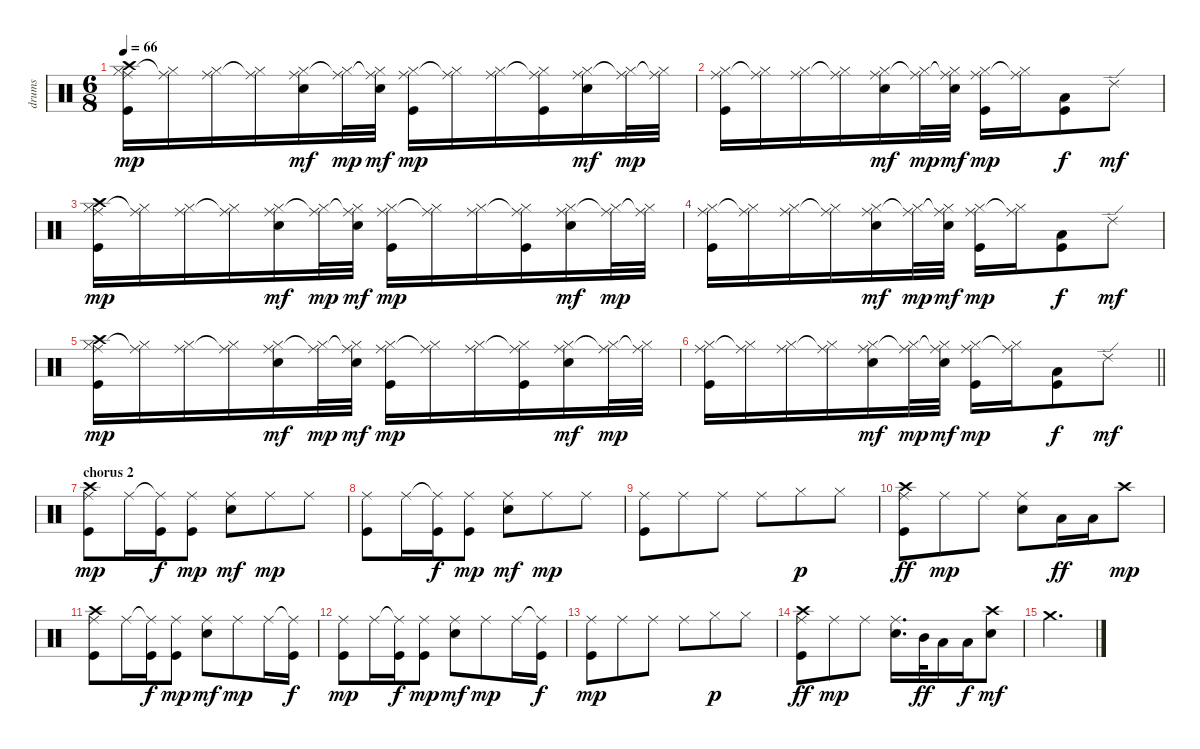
\track ("drums" "drums") {instrument percussion}
\staff {score}
\articulation defaults
\ts (6 8)
\tempo 66
\clef neutral
\ks c
("Crash high (hit)" "Hi-Hat (closed)" "Ride (middle)" "Kick (hit)").16{dy mp} ("Hi-Hat (closed)" "Ride (middle)"{t}).16 ("Hi-Hat (closed)" "Ride (middle)").16 ("Hi-Hat (closed)" "Ride (middle)"{t}).16 ("Hi-Hat (closed)" "Ride (middle)" "Electric Snare (hit)").16{dy mf} ("Hi-Hat (closed)" "Ride (middle)"{t}).32{dy mp} ("Hi-Hat (closed)" "Ride (middle)"{t} "Electric Snare (hit)").32{dy mf} ("Hi-Hat (closed)" "Ride (middle)" "Kick (hit)").16{dy mp} ("Hi-Hat (closed)" "Ride (middle)"{t}).16 ("Hi-Hat (closed)" "Ride (middle)").16 ("Hi-Hat (closed)" "Ride (middle)"{t} "Kick (hit)").16 ("Hi-Hat (closed)" "Ride (middle)" "Electric Snare (hit)").16{dy mf} ("Hi-Hat (closed)" "Ride (middle)"{t}).32{dy mp} ("Hi-Hat (closed)" "Ride (middle)"{t}).32 |
("Hi-Hat (closed)" "Ride (middle)" "Kick (hit)").16 ("Hi-Hat (closed)" "Ride (middle)"{t}).16 ("Hi-Hat (closed)" "Ride (middle)").16 ("Hi-Hat (closed)" "Ride (middle)"{t}).16 ("Hi-Hat (closed)" "Ride (middle)" "Electric Snare (hit)").16{dy mf} ("Hi-Hat (closed)" "Ride (middle)"{t}).32{dy mp} ("Hi-Hat (closed)" "Ride (middle)"{t} "Electric Snare (hit)").32{dy mf} ("Hi-Hat (closed)" "Ride (middle)" "Kick (hit)").16{dy mp} ("Hi-Hat (closed)" "Ride (middle)"{t}).16 ("Low Tom (hit)" "Kick (hit)").8{dy f} "Ride (edge) 2".8{dy mf} |
("Crash high (hit)" "Hi-Hat (closed)" "Ride (middle)" "Kick (hit)").16{dy mp} ("Hi-Hat (closed)" "Ride (middle)"{t}).16 ("Hi-Hat (closed)" "Ride (middle)").16 ("Hi-Hat (closed)" "Ride (middle)"{t}).16 ("Hi-Hat (closed)" "Ride (middle)" "Electric Snare (hit)").16{dy mf} ("Hi-Hat (closed)" "Ride (middle)"{t}).32{dy mp} ("Hi-Hat (closed)" "Ride (middle)"{t} "Electric Snare (hit)").32{dy mf} ("Hi-Hat (closed)" "Ride (middle)" "Kick (hit)").16{dy mp} ("Hi-Hat (closed)" "Ride (middle)"{t}).16 ("Hi-Hat (closed)" "Ride (middle)").16 ("Hi-Hat (closed)" "Ride (middle)"{t} "Kick (hit)").16 ("Hi-Hat (closed)" "Ride (middle)" "Electric Snare (hit)").16{dy mf} ("Hi-Hat (closed)" "Ride (middle)"{t}).32{dy mp} ("Hi-Hat (closed)" "Ride (middle)"{t}).32 |
("Hi-Hat (closed)" "Ride (middle)" "Kick (hit)").16 ("Hi-Hat (closed)" "Ride (middle)"{t}).16 ("Hi-Hat (closed)" "Ride (middle)").16 ("Hi-Hat (closed)" "Ride (middle)"{t}).16 ("Hi-Hat (closed)" "Ride (middle)" "Electric Snare (hit)").16{dy mf} ("Hi-Hat (closed)" "Ride (middle)"{t}).32{dy mp} ("Hi-Hat (closed)" "Ride (middle)"{t} "Electric Snare (hit)").32{dy mf} ("Hi-Hat (closed)" "Ride (middle)" "Kick (hit)").16{dy mp} ("Hi-Hat (closed)" "Ride (middle)"{t}).16 ("Low Tom (hit)" "Kick (hit)").8{dy f} "Ride (edge) 2".8{dy mf} |
("Crash high (hit)" "Hi-Hat (closed)" "Ride (middle)" "Kick (hit)").16{dy mp} ("Hi-Hat (closed)" "Ride (middle)"{t}).16 ("Hi-Hat (closed)" "Ride (middle)").16 ("Hi-Hat (closed)" "Ride (middle)"{t}).16 ("Hi-Hat (closed)" "Ride (middle)" "Electric Snare (hit)").16{dy mf} ("Hi-Hat (closed)" "Ride (middle)"{t}).32{dy mp} ("Hi-Hat (closed)" "Ride (middle)"{t} "Electric Snare (hit)").32{dy mf} ("Hi-Hat (closed)" "Ride (middle)" "Kick (hit)").16{dy mp} ("Hi-Hat (closed)" "Ride (middle)"{t}).16 ("Hi-Hat (closed)" "Ride (middle)").16 ("Hi-Hat (closed)" "Ride (middle)"{t} "Kick (hit)").16 ("Hi-Hat (closed)" "Ride (middle)" "Electric Snare (hit)").16{dy mf} ("Hi-Hat (closed)" "Ride (middle)"{t}).32{dy mp} ("Hi-Hat (closed)" "Ride (middle)"{t}).32 |
\barLineRight lightlight
("Hi-Hat (closed)" "Ride (middle)" "Kick (hit)").16 ("Hi-Hat (closed)" "Ride (middle)"{t}).16 ("Hi-Hat (closed)" "Ride (middle)").16 ("Hi-Hat (closed)" "Ride (middle)"{t}).16 ("Hi-Hat (closed)" "Ride (middle)" "Electric Snare (hit)").16{dy mf} ("Hi-Hat (closed)" "Ride (middle)"{t}).32{dy mp} ("Hi-Hat (closed)" "Ride (middle)"{t} "Electric Snare (hit)").32{dy mf} ("Hi-Hat (closed)" "Ride (middle)" "Kick (hit)").16{dy mp} ("Hi-Hat (closed)" "Ride (middle)"{t}).16 ("Low Tom (hit)" "Kick (hit)").8{dy f} "Ride (edge) 2".8{dy mf} |
\section ("" "chorus 2")
("Crash high (hit)" "Ride (middle)" "Kick (hit)").8{dy mp} "Ride (middle)".16 ("Ride (middle)"{t} "Kick (hit)").16{dy f} ("Ride (middle)" "Kick (hit)").8{dy mp} ("Ride (middle)" "Electric Snare (hit)").8{dy mf} "Ride (middle)".8{dy mp} "Ride (middle)".8 |
("Ride (middle)" "Kick (hit)").8 "Ride (middle)".16 ("Ride (middle)"{t} "Kick (hit)").16{dy f} ("Ride (middle)" "Kick (hit)").8{dy mp} ("Ride (middle)" "Electric Snare (hit)").8{dy mf} "Ride (middle)".8{dy mp} "Ride (middle)".8 |
("Ride (middle)" "Kick (hit)").8 "Ride (middle)".8 "Ride (middle)".8 "Ride (middle)".8 "Hi-Hat (closed)".8{dy p} "Hi-Hat (closed)".8 |
("Crash high (hit)" "Ride (middle)" "Kick (hit)").8{dy ff} "Ride (middle)".8{dy mp} "Ride (middle)".8 ("Ride (middle)" "Electric Snare (hit)").8 "Low Tom (hit)".16{dy ff} "Low Floor Tom (hit)".16 "Crash high (hit)".8{dy mp} |
("Crash high (hit)" "Ride (middle)" "Kick (hit)").8 "Ride (middle)".16 ("Ride (middle)"{t} "Kick (hit)").16{dy f} ("Ride (middle)" "Kick (hit)").8{dy mp} ("Ride (middle)" "Electric Snare (hit)").8{dy mf} "Ride (middle)".8{dy mp} "Ride (middle)".16 ("Ride (middle)"{t} "Kick (hit)").16{dy f} |
("Ride (middle)" "Kick (hit)").8{dy mp} "Ride (middle)".16 ("Ride (middle)"{t} "Kick (hit)").16{dy f} ("Ride (middle)" "Kick (hit)").8{dy mp} ("Ride (middle)" "Electric Snare (hit)").8{dy mf} "Ride (middle)".8{dy mp} "Ride (middle)".16 ("Ride (middle)"{t} "Kick (hit)").16{dy f} |
("Ride (middle)" "Kick (hit)").8{dy mp} "Ride (middle)".8 "Ride (middle)".8 "Ride (middle)".8 "Hi-Hat (closed)".8{dy p} "Hi-Hat (closed)".8 |
("Crash high (hit)" "Ride (middle)" "Kick (hit)").8{dy ff} "Ride (middle)".8{dy mp} "Ride (middle)".8 ("Ride (middle)" "Electric Snare (hit)").16{d} "Mid Tom (hit)".32{dy ff} "Low Tom (hit)".16 "Low Floor Tom (hit)".16{dy f} ("Crash high (hit)" "Electric Snare (hit)").8{dy mf} |
"Crash medium (hit)".2{d}
